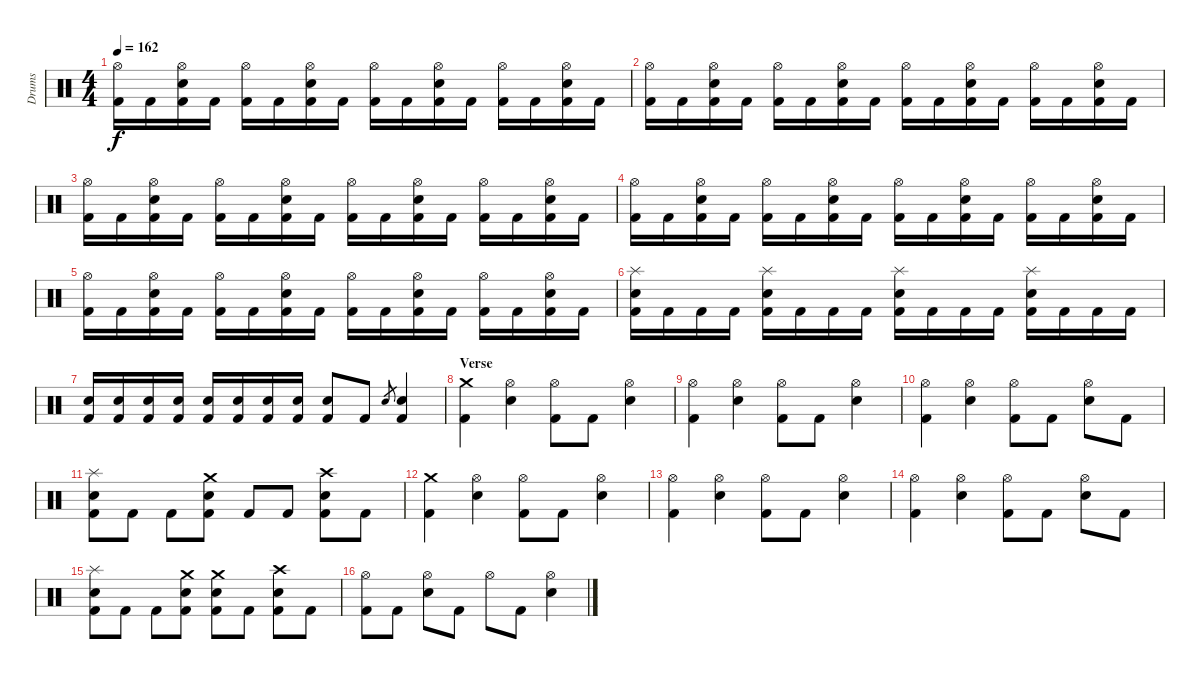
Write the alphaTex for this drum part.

\track ("Drums" "Drums") {instrument percussion}
\staff {score}
\articulation defaults
\ts (4 4)
\tempo 162
\clef neutral
\ks c
("Kick (hit) 2" "Hi-Hat (open)").16{dy f} "Kick (hit) 2".16 ("Kick (hit) 2" "Electric Snare (hit)" "Hi-Hat (open)").16 "Kick (hit) 2".16 ("Kick (hit) 2" "Hi-Hat (open)").16 "Kick (hit) 2".16 ("Kick (hit) 2" "Electric Snare (hit)" "Hi-Hat (open)").16 "Kick (hit) 2".16 ("Kick (hit) 2" "Hi-Hat (open)").16 "Kick (hit) 2".16 ("Kick (hit) 2" "Electric Snare (hit)" "Hi-Hat (open)").16 "Kick (hit) 2".16 ("Kick (hit) 2" "Hi-Hat (open)").16 "Kick (hit) 2".16 ("Kick (hit) 2" "Electric Snare (hit)" "Hi-Hat (open)").16 "Kick (hit) 2".16 |
("Kick (hit) 2" "Hi-Hat (open)").16 "Kick (hit) 2".16 ("Kick (hit) 2" "Electric Snare (hit)" "Hi-Hat (open)").16 "Kick (hit) 2".16 ("Kick (hit) 2" "Hi-Hat (open)").16 "Kick (hit) 2".16 ("Kick (hit) 2" "Electric Snare (hit)" "Hi-Hat (open)").16 "Kick (hit) 2".16 ("Kick (hit) 2" "Hi-Hat (open)").16 "Kick (hit) 2".16 ("Kick (hit) 2" "Electric Snare (hit)" "Hi-Hat (open)").16 "Kick (hit) 2".16 ("Kick (hit) 2" "Hi-Hat (open)").16 "Kick (hit) 2".16 ("Kick (hit) 2" "Electric Snare (hit)" "Hi-Hat (open)").16 "Kick (hit) 2".16 |
("Kick (hit) 2" "Hi-Hat (open)").16 "Kick (hit) 2".16 ("Kick (hit) 2" "Electric Snare (hit)" "Hi-Hat (open)").16 "Kick (hit) 2".16 ("Kick (hit) 2" "Hi-Hat (open)").16 "Kick (hit) 2".16 ("Kick (hit) 2" "Electric Snare (hit)" "Hi-Hat (open)").16 "Kick (hit) 2".16 ("Kick (hit) 2" "Hi-Hat (open)").16 "Kick (hit) 2".16 ("Kick (hit) 2" "Electric Snare (hit)" "Hi-Hat (open)").16 "Kick (hit) 2".16 ("Kick (hit) 2" "Hi-Hat (open)").16 "Kick (hit) 2".16 ("Kick (hit) 2" "Electric Snare (hit)" "Hi-Hat (open)").16 "Kick (hit) 2".16 |
("Kick (hit) 2" "Hi-Hat (open)").16 "Kick (hit) 2".16 ("Kick (hit) 2" "Electric Snare (hit)" "Hi-Hat (open)").16 "Kick (hit) 2".16 ("Kick (hit) 2" "Hi-Hat (open)").16 "Kick (hit) 2".16 ("Kick (hit) 2" "Electric Snare (hit)" "Hi-Hat (open)").16 "Kick (hit) 2".16 ("Kick (hit) 2" "Hi-Hat (open)").16 "Kick (hit) 2".16 ("Kick (hit) 2" "Electric Snare (hit)" "Hi-Hat (open)").16 "Kick (hit) 2".16 ("Kick (hit) 2" "Hi-Hat (open)").16 "Kick (hit) 2".16 ("Kick (hit) 2" "Electric Snare (hit)" "Hi-Hat (open)").16 "Kick (hit) 2".16 |
("Kick (hit) 2" "Hi-Hat (open)").16 "Kick (hit) 2".16 ("Kick (hit) 2" "Electric Snare (hit)" "Hi-Hat (open)").16 "Kick (hit) 2".16 ("Kick (hit) 2" "Hi-Hat (open)").16 "Kick (hit) 2".16 ("Kick (hit) 2" "Electric Snare (hit)" "Hi-Hat (open)").16 "Kick (hit) 2".16 ("Kick (hit) 2" "Hi-Hat (open)").16 "Kick (hit) 2".16 ("Kick (hit) 2" "Electric Snare (hit)" "Hi-Hat (open)").16 "Kick (hit) 2".16 ("Kick (hit) 2" "Hi-Hat (open)").16 "Kick (hit) 2".16 ("Kick (hit) 2" "Electric Snare (hit)" "Hi-Hat (open)").16 "Kick (hit) 2".16 |
("Kick (hit) 2" "Electric Snare (hit)" "Splash (hit)").16 "Kick (hit) 2".16 "Kick (hit) 2".16 "Kick (hit) 2".16 ("Kick (hit) 2" "Electric Snare (hit)" "Splash (hit)").16 "Kick (hit) 2".16 "Kick (hit) 2".16 "Kick (hit) 2".16 ("Kick (hit) 2" "Electric Snare (hit)" "Splash (hit)").16 "Kick (hit) 2".16 "Kick (hit) 2".16 "Kick (hit) 2".16 ("Kick (hit) 2" "Electric Snare (hit)" "Splash (hit)").16 "Kick (hit) 2".16 "Kick (hit) 2".16 "Kick (hit) 2".16 |
("Kick (hit) 2" "Electric Snare (hit)").16 ("Kick (hit) 2" "Electric Snare (hit)").16 ("Kick (hit) 2" "Electric Snare (hit)").16 ("Kick (hit) 2" "Electric Snare (hit)").16 ("Kick (hit) 2" "Electric Snare (hit)").16 ("Kick (hit) 2" "Electric Snare (hit)").16 ("Kick (hit) 2" "Electric Snare (hit)").16 ("Kick (hit) 2" "Electric Snare (hit)").16 ("Kick (hit) 2" "Electric Snare (hit)").8 "Kick (hit) 2".8 "Electric Snare (hit)".8{gr} ("Kick (hit) 2" "Electric Snare (hit)").4 |
\section ("" "Verse")
("Kick (hit) 2" "Crash medium (hit)").4 ("Electric Snare (hit)" "Hi-Hat (open)").4 ("Kick (hit) 2" "Hi-Hat (open)").8 "Kick (hit) 2".8 ("Electric Snare (hit)" "Hi-Hat (open)").4 |
("Kick (hit) 2" "Hi-Hat (open)").4 ("Electric Snare (hit)" "Hi-Hat (open)").4 ("Kick (hit) 2" "Hi-Hat (open)").8 "Kick (hit) 2".8 ("Electric Snare (hit)" "Hi-Hat (open)").4 |
("Kick (hit) 2" "Hi-Hat (open)").4 ("Electric Snare (hit)" "Hi-Hat (open)").4 ("Kick (hit) 2" "Hi-Hat (open)").8 "Kick (hit) 2".8 ("Electric Snare (hit)" "Hi-Hat (open)").8 "Kick (hit) 2".8 |
("Kick (hit) 2" "Electric Snare (hit)" "Splash (hit)").8 "Kick (hit) 2".8 "Kick (hit) 2".8 ("Kick (hit) 2" "Electric Snare (hit)" "Crash medium (hit)").8 "Kick (hit) 2".8 "Kick (hit) 2".8 ("Kick (hit) 2" "Electric Snare (hit)" "Crash high (hit)").8 "Kick (hit) 2".8 |
("Kick (hit) 2" "Crash medium (hit)").4 ("Electric Snare (hit)" "Hi-Hat (open)").4 ("Kick (hit) 2" "Hi-Hat (open)").8 "Kick (hit) 2".8 ("Electric Snare (hit)" "Hi-Hat (open)").4 |
("Kick (hit) 2" "Hi-Hat (open)").4 ("Electric Snare (hit)" "Hi-Hat (open)").4 ("Kick (hit) 2" "Hi-Hat (open)").8 "Kick (hit) 2".8 ("Electric Snare (hit)" "Hi-Hat (open)").4 |
("Kick (hit) 2" "Hi-Hat (open)").4 ("Electric Snare (hit)" "Hi-Hat (open)").4 ("Kick (hit) 2" "Hi-Hat (open)").8 "Kick (hit) 2".8 ("Electric Snare (hit)" "Hi-Hat (open)").8 "Kick (hit) 2".8 |
("Kick (hit) 2" "Electric Snare (hit)" "Splash (hit)").8 "Kick (hit) 2".8 "Kick (hit) 2".8 ("Kick (hit) 2" "Electric Snare (hit)" "Crash medium (hit)").8 ("Kick (hit) 2" "Electric Snare (hit)" "Crash medium (hit)").8 "Kick (hit) 2".8 ("Kick (hit) 2" "Electric Snare (hit)" "Crash high (hit)").8 "Kick (hit) 2".8 |
\section ("" "")
("Kick (hit) 2" "Hi-Hat (open)").8 "Kick (hit) 2".8 ("Electric Snare (hit)" "Hi-Hat (open)").8 "Kick (hit) 2".8 "Hi-Hat (open)".8 "Kick (hit) 2".8 ("Electric Snare (hit)" "Hi-Hat (open)").4
